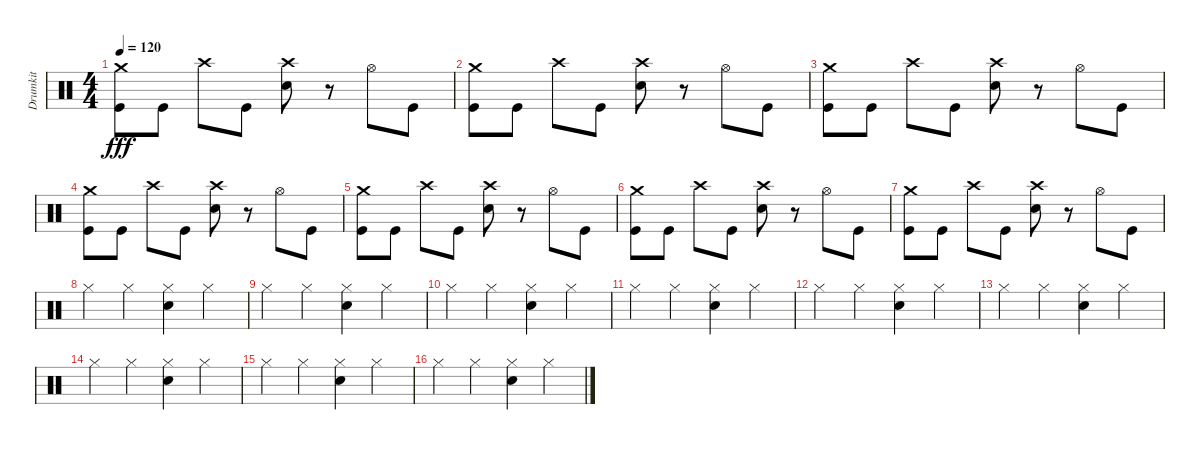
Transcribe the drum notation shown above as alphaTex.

\track ("Drumkit" "Drumkit") {instrument percussion}
\staff {score}
\articulation defaults
\ts (4 4)
\tempo 120
\clef neutral
\ks c
("Kick (hit)" "Crash medium (hit)").8{dy fff} "Kick (hit)".8 "Crash high (hit)".8 "Kick (hit)".8 ("Snare (hit) 2" "Crash high (hit)").8 r.8 "Hi-Hat (open)".8 "Kick (hit)".8 |
("Kick (hit)" "Crash medium (hit)").8 "Kick (hit)".8 "Crash high (hit)".8 "Kick (hit)".8 ("Snare (hit) 2" "Crash high (hit)").8 r.8 "Hi-Hat (open)".8 "Kick (hit)".8 |
("Kick (hit)" "Crash medium (hit)").8 "Kick (hit)".8 "Crash high (hit)".8 "Kick (hit)".8 ("Snare (hit) 2" "Crash high (hit)").8 r.8 "Hi-Hat (open)".8 "Kick (hit)".8 |
("Kick (hit)" "Crash medium (hit)").8 "Kick (hit)".8 "Crash high (hit)".8 "Kick (hit)".8 ("Snare (hit) 2" "Crash high (hit)").8 r.8 "Hi-Hat (open)".8 "Kick (hit)".8 |
("Kick (hit)" "Crash medium (hit)").8 "Kick (hit)".8 "Crash high (hit)".8 "Kick (hit)".8 ("Snare (hit) 2" "Crash high (hit)").8 r.8 "Hi-Hat (open)".8 "Kick (hit)".8 |
("Kick (hit)" "Crash medium (hit)").8 "Kick (hit)".8 "Crash high (hit)".8 "Kick (hit)".8 ("Snare (hit) 2" "Crash high (hit)").8 r.8 "Hi-Hat (open)".8 "Kick (hit)".8 |
("Kick (hit)" "Crash medium (hit)").8 "Kick (hit)".8 "Crash high (hit)".8 "Kick (hit)".8 ("Snare (hit) 2" "Crash high (hit)").8 r.8 "Hi-Hat (open)".8 "Kick (hit)".8 |
"Hi-Hat (closed)".4 "Hi-Hat (closed)".4 ("Snare (hit) 2" "Hi-Hat (closed)").4 "Hi-Hat (closed)".4 |
"Hi-Hat (closed)".4 "Hi-Hat (closed)".4 ("Snare (hit) 2" "Hi-Hat (closed)").4 "Hi-Hat (closed)".4 |
"Hi-Hat (closed)".4 "Hi-Hat (closed)".4 ("Snare (hit) 2" "Hi-Hat (closed)").4 "Hi-Hat (closed)".4 |
"Hi-Hat (closed)".4 "Hi-Hat (closed)".4 ("Snare (hit) 2" "Hi-Hat (closed)").4 "Hi-Hat (closed)".4 |
"Hi-Hat (closed)".4 "Hi-Hat (closed)".4 ("Snare (hit) 2" "Hi-Hat (closed)").4 "Hi-Hat (closed)".4 |
"Hi-Hat (closed)".4 "Hi-Hat (closed)".4 ("Snare (hit) 2" "Hi-Hat (closed)").4 "Hi-Hat (closed)".4 |
"Hi-Hat (closed)".4 "Hi-Hat (closed)".4 ("Snare (hit) 2" "Hi-Hat (closed)").4 "Hi-Hat (closed)".4 |
"Hi-Hat (closed)".4 "Hi-Hat (closed)".4 ("Snare (hit) 2" "Hi-Hat (closed)").4 "Hi-Hat (closed)".4 |
"Hi-Hat (closed)".4 "Hi-Hat (closed)".4 ("Snare (hit) 2" "Hi-Hat (closed)").4 "Hi-Hat (closed)".4
